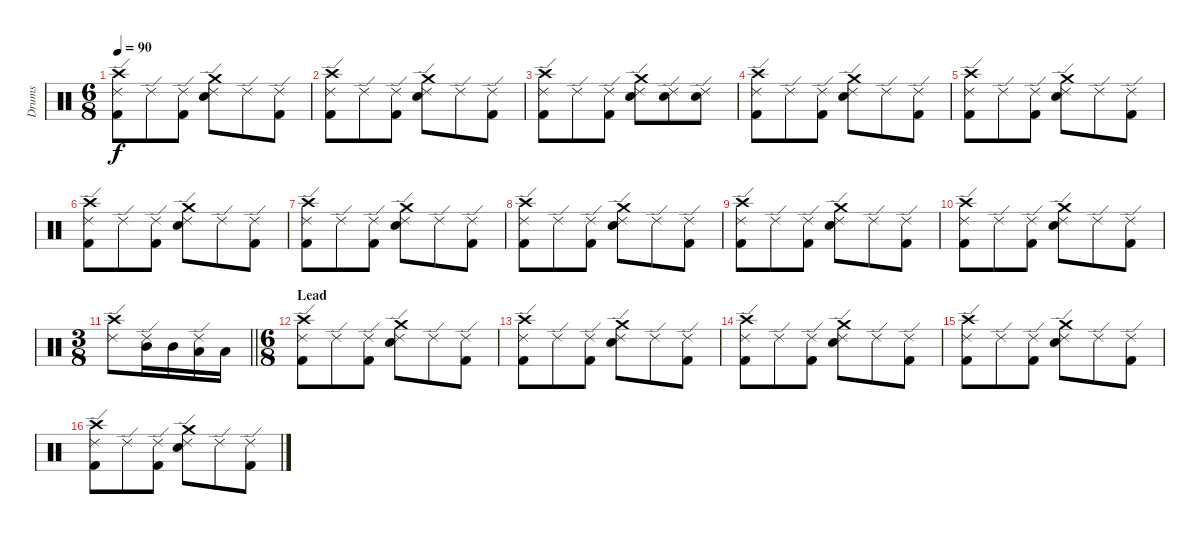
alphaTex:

\track ("Drums" "Drums") {instrument percussion}
\staff {score}
\articulation defaults
\ts (6 8)
\tempo 90
\clef neutral
\ks c
("Ride (edge) 2" "Kick (hit) 2" "Crash high (hit)").8{dy f} "Ride (edge) 2".8 ("Ride (edge) 2" "Kick (hit) 2").8 ("Ride (edge) 2" "Snare (hit) 2" "Crash medium (hit)").8 "Ride (edge) 2".8 ("Ride (edge) 2" "Kick (hit) 2").8 |
("Ride (edge) 2" "Kick (hit) 2" "Crash high (hit)").8 "Ride (edge) 2".8 ("Ride (edge) 2" "Kick (hit) 2").8 ("Ride (edge) 2" "Snare (hit) 2" "Crash medium (hit)").8 "Ride (edge) 2".8 ("Ride (edge) 2" "Kick (hit) 2").8 |
("Ride (edge) 2" "Kick (hit) 2" "Crash high (hit)").8 "Ride (edge) 2".8 ("Ride (edge) 2" "Kick (hit) 2").8 ("Ride (edge) 2" "Snare (hit) 2" "Crash medium (hit)").8 ("Ride (edge) 2" "Snare (hit) 2").8 ("Ride (edge) 2" "Snare (hit) 2").8 |
("Ride (edge) 2" "Kick (hit) 2" "Crash high (hit)").8 "Ride (edge) 2".8 ("Ride (edge) 2" "Kick (hit) 2").8 ("Ride (edge) 2" "Snare (hit) 2" "Crash medium (hit)").8 "Ride (edge) 2".8 ("Ride (edge) 2" "Kick (hit) 2").8 |
("Ride (edge) 2" "Kick (hit) 2" "Crash high (hit)").8 "Ride (edge) 2".8 ("Ride (edge) 2" "Kick (hit) 2").8 ("Ride (edge) 2" "Snare (hit) 2" "Crash medium (hit)").8 "Ride (edge) 2".8 ("Ride (edge) 2" "Kick (hit) 2").8 |
("Ride (edge) 2" "Kick (hit) 2" "Crash high (hit)").8 "Ride (edge) 2".8 ("Ride (edge) 2" "Kick (hit) 2").8 ("Ride (edge) 2" "Snare (hit) 2" "Crash medium (hit)").8 "Ride (edge) 2".8 ("Ride (edge) 2" "Kick (hit) 2").8 |
("Ride (edge) 2" "Kick (hit) 2" "Crash high (hit)").8 "Ride (edge) 2".8 ("Ride (edge) 2" "Kick (hit) 2").8 ("Ride (edge) 2" "Snare (hit) 2" "Crash medium (hit)").8 "Ride (edge) 2".8 ("Ride (edge) 2" "Kick (hit) 2").8 |
("Ride (edge) 2" "Kick (hit) 2" "Crash high (hit)").8 "Ride (edge) 2".8 ("Ride (edge) 2" "Kick (hit) 2").8 ("Ride (edge) 2" "Snare (hit) 2" "Crash medium (hit)").8 "Ride (edge) 2".8 ("Ride (edge) 2" "Kick (hit) 2").8 |
("Ride (edge) 2" "Kick (hit) 2" "Crash high (hit)").8 "Ride (edge) 2".8 ("Ride (edge) 2" "Kick (hit) 2").8 ("Ride (edge) 2" "Snare (hit) 2" "Crash medium (hit)").8 "Ride (edge) 2".8 ("Ride (edge) 2" "Kick (hit) 2").8 |
("Ride (edge) 2" "Kick (hit) 2" "Crash high (hit)").8 "Ride (edge) 2".8 ("Ride (edge) 2" "Kick (hit) 2").8 ("Ride (edge) 2" "Snare (hit) 2" "Crash medium (hit)").8 "Ride (edge) 2".8 ("Ride (edge) 2" "Kick (hit) 2").8 |
\ts (3 8)
\barLineRight lightlight
("Ride (edge) 2" "Crash high (hit)").8 ("Ride (edge) 2" "Mid Tom (hit)").16 "Mid Tom (hit)".16 ("Ride (edge) 2" "Low Tom (hit)").16 "Low Tom (hit)".16 |
\ts (6 8)
\section ("" "Lead")
("Ride (edge) 2" "Kick (hit) 2" "Crash high (hit)").8 "Ride (edge) 2".8 ("Ride (edge) 2" "Kick (hit) 2").8 ("Ride (edge) 2" "Snare (hit) 2" "Crash medium (hit)").8 "Ride (edge) 2".8 ("Ride (edge) 2" "Kick (hit) 2").8 |
("Ride (edge) 2" "Kick (hit) 2" "Crash high (hit)").8 "Ride (edge) 2".8 ("Ride (edge) 2" "Kick (hit) 2").8 ("Ride (edge) 2" "Snare (hit) 2" "Crash medium (hit)").8 "Ride (edge) 2".8 ("Ride (edge) 2" "Kick (hit) 2").8 |
("Ride (edge) 2" "Kick (hit) 2" "Crash high (hit)").8 "Ride (edge) 2".8 ("Ride (edge) 2" "Kick (hit) 2").8 ("Ride (edge) 2" "Snare (hit) 2" "Crash medium (hit)").8 "Ride (edge) 2".8 ("Ride (edge) 2" "Kick (hit) 2").8 |
("Ride (edge) 2" "Kick (hit) 2" "Crash high (hit)").8 "Ride (edge) 2".8 ("Ride (edge) 2" "Kick (hit) 2").8 ("Ride (edge) 2" "Snare (hit) 2" "Crash medium (hit)").8 "Ride (edge) 2".8 ("Ride (edge) 2" "Kick (hit) 2").8 |
("Ride (edge) 2" "Kick (hit) 2" "Crash high (hit)").8 "Ride (edge) 2".8 ("Ride (edge) 2" "Kick (hit) 2").8 ("Ride (edge) 2" "Snare (hit) 2" "Crash medium (hit)").8 "Ride (edge) 2".8 ("Ride (edge) 2" "Kick (hit) 2").8
